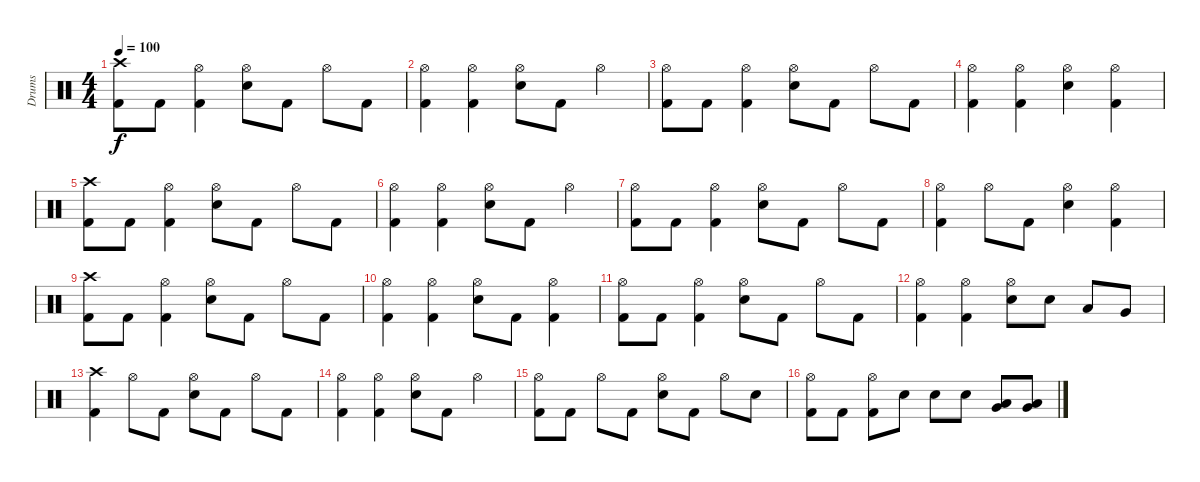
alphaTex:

\track ("Drums" "Drums") {instrument percussion}
\staff {score}
\articulation defaults
\ts (4 4)
\tempo 100
\clef neutral
\ks c
("Crash high (hit)" "Kick (hit) 2").8{dy f} "Kick (hit) 2".8 ("Hi-Hat (open)" "Kick (hit) 2").4 ("Hi-Hat (open)" "Electric Snare (hit)").8 "Kick (hit) 2".8 "Hi-Hat (open)".8 "Kick (hit) 2".8 |
("Hi-Hat (open)" "Kick (hit) 2").4 ("Hi-Hat (open)" "Kick (hit) 2").4 ("Hi-Hat (open)" "Electric Snare (hit)").8 "Kick (hit) 2".8 "Hi-Hat (open)".4 |
("Hi-Hat (open)" "Kick (hit) 2").8 "Kick (hit) 2".8 ("Hi-Hat (open)" "Kick (hit) 2").4 ("Hi-Hat (open)" "Electric Snare (hit)").8 "Kick (hit) 2".8 "Hi-Hat (open)".8 "Kick (hit) 2".8 |
("Hi-Hat (open)" "Kick (hit) 2").4 ("Hi-Hat (open)" "Kick (hit) 2").4 ("Hi-Hat (open)" "Electric Snare (hit)").4 ("Hi-Hat (open)" "Kick (hit) 2").4 |
("Crash high (hit)" "Kick (hit) 2").8 "Kick (hit) 2".8 ("Hi-Hat (open)" "Kick (hit) 2").4 ("Hi-Hat (open)" "Electric Snare (hit)").8 "Kick (hit) 2".8 "Hi-Hat (open)".8 "Kick (hit) 2".8 |
("Hi-Hat (open)" "Kick (hit) 2").4 ("Hi-Hat (open)" "Kick (hit) 2").4 ("Hi-Hat (open)" "Electric Snare (hit)").8 "Kick (hit) 2".8 "Hi-Hat (open)".4 |
("Hi-Hat (open)" "Kick (hit) 2").8 "Kick (hit) 2".8 ("Hi-Hat (open)" "Kick (hit) 2").4 ("Hi-Hat (open)" "Electric Snare (hit)").8 "Kick (hit) 2".8 "Hi-Hat (open)".8 "Kick (hit) 2".8 |
("Hi-Hat (open)" "Kick (hit) 2").4 "Hi-Hat (open)".8 "Kick (hit) 2".8 ("Hi-Hat (open)" "Electric Snare (hit)").4 ("Hi-Hat (open)" "Kick (hit) 2").4 |
("Crash high (hit)" "Kick (hit) 2").8 "Kick (hit) 2".8 ("Hi-Hat (open)" "Kick (hit) 2").4 ("Hi-Hat (open)" "Electric Snare (hit)").8 "Kick (hit) 2".8 "Hi-Hat (open)".8 "Kick (hit) 2".8 |
("Hi-Hat (open)" "Kick (hit) 2").4 ("Hi-Hat (open)" "Kick (hit) 2").4 ("Hi-Hat (open)" "Electric Snare (hit)").8 "Kick (hit) 2".8 ("Hi-Hat (open)" "Kick (hit) 2").4 |
("Hi-Hat (open)" "Kick (hit) 2").8 "Kick (hit) 2".8 ("Hi-Hat (open)" "Kick (hit) 2").4 ("Hi-Hat (open)" "Electric Snare (hit)").8 "Kick (hit) 2".8 "Hi-Hat (open)".8 "Kick (hit) 2".8 |
("Hi-Hat (open)" "Kick (hit) 2").4 ("Hi-Hat (open)" "Kick (hit) 2").4 ("Hi-Hat (open)" "Electric Snare (hit)").8 "Electric Snare (hit)".8 "Low Tom (hit)".8 "Very Low Tom (hit)".8 |
("Crash high (hit)" "Kick (hit) 2").4 "Hi-Hat (open)".8 "Kick (hit) 2".8 ("Hi-Hat (open)" "Electric Snare (hit)").8 "Kick (hit) 2".8 "Hi-Hat (open)".8 "Kick (hit) 2".8 |
("Hi-Hat (open)" "Kick (hit) 2").4 ("Hi-Hat (open)" "Kick (hit) 2").4 ("Hi-Hat (open)" "Electric Snare (hit)").8 "Kick (hit) 2".8 "Hi-Hat (open)".4 |
("Hi-Hat (open)" "Kick (hit) 2").8 "Kick (hit) 2".8 "Hi-Hat (open)".8 "Kick (hit) 2".8 ("Hi-Hat (open)" "Electric Snare (hit)").8 "Kick (hit) 2".8 "Hi-Hat (open)".8 "Electric Snare (hit)".8 |
("Hi-Hat (open)" "Kick (hit) 2").8 "Kick (hit) 2".8 ("Hi-Hat (open)" "Kick (hit) 2").8 "Electric Snare (hit)".8 "Electric Snare (hit)".8 "Electric Snare (hit)".8 ("Low Tom (hit)" "Very Low Tom (hit)").8 ("Very Low Tom (hit)" "Low Floor Tom (hit)").8
